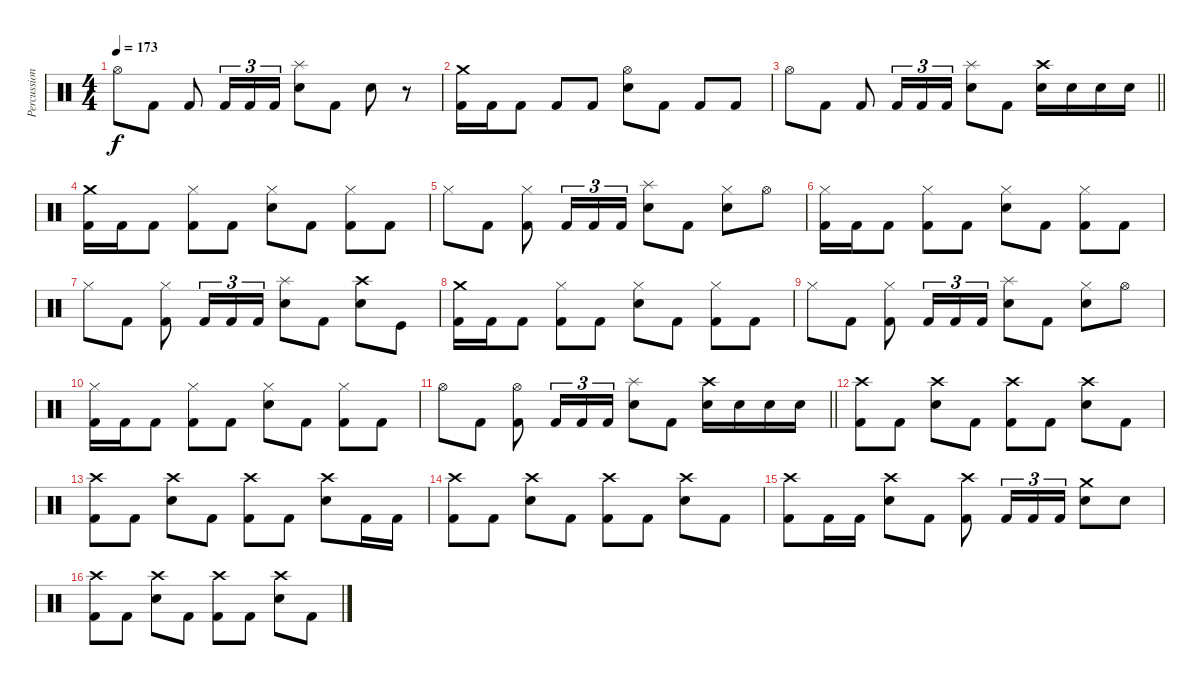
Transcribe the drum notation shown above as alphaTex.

\track ("Percussion" "Percussion") {instrument percussion}
\staff {score}
\articulation defaults
\ts (4 4)
\tempo 173
\clef neutral
\ks c "Hi-Hat (open)".8{dy f} "Kick (hit) 2".8 "Kick (hit) 2".8 "Kick (hit) 2".16{tu (3 2)} "Kick (hit) 2".16{tu (3 2)} "Kick (hit) 2".16{tu (3 2)}
("Splash (hit)" "Electric Snare (hit)").8 "Kick (hit) 2".8 "Electric Snare (hit)".8 r.8 |
("Crash medium (hit)" "Kick (hit) 2").16 "Kick (hit) 2".16 "Kick (hit) 2".8 "Kick (hit) 2".8 "Kick (hit) 2".8 ("Hi-Hat (open)" "Electric Snare (hit)").8 "Kick (hit) 2".8 "Kick (hit) 2".8 "Kick (hit) 2".8 |
\barLineRight lightlight "Hi-Hat (open)".8 "Kick (hit) 2".8 "Kick (hit) 2".8 "Kick (hit) 2".16{tu (3 2)} "Kick (hit) 2".16{tu (3 2)} "Kick (hit) 2".16{tu (3 2)}
("Splash (hit)" "Electric Snare (hit)").8 "Kick (hit) 2".8 ("Crash high (hit)" "Electric Snare (hit)").16 "Electric Snare (hit)".16 "Electric Snare (hit)".16 "Electric Snare (hit)".16 |
("Crash medium (hit)" "Kick (hit) 2").16 "Kick (hit) 2".16 "Kick (hit) 2".8 ("Hi-Hat (closed)" "Kick (hit) 2").8 "Kick (hit) 2".8 ("Hi-Hat (closed)" "Electric Snare (hit)").8 "Kick (hit) 2".8 ("Hi-Hat (closed)" "Kick (hit) 2").8 "Kick (hit) 2".8 |
"Hi-Hat (closed)".8 "Kick (hit) 2".8 ("Hi-Hat (closed)" "Kick (hit) 2").8 "Kick (hit) 2".16{tu (3 2)} "Kick (hit) 2".16{tu (3 2)} "Kick (hit) 2".16{tu (3 2)} ("Splash (hit)" "Electric Snare (hit)").8 "Kick (hit) 2".8 ("Hi-Hat (closed)" "Electric Snare (hit)").8 "Hi-Hat (open)".8 |
("Hi-Hat (closed)" "Kick (hit) 2").16 "Kick (hit) 2".16 "Kick (hit) 2".8 ("Hi-Hat (closed)" "Kick (hit) 2").8 "Kick (hit) 2".8 ("Hi-Hat (closed)" "Electric Snare (hit)").8 "Kick (hit) 2".8 ("Hi-Hat (closed)" "Kick (hit) 2").8 "Kick (hit) 2".8 |
"Hi-Hat (closed)".8 "Kick (hit) 2".8 ("Hi-Hat (closed)" "Kick (hit) 2").8 "Kick (hit) 2".16{tu (3 2)} "Kick (hit) 2".16{tu (3 2)} "Kick (hit) 2".16{tu (3 2)} ("Splash (hit)" "Electric Snare (hit)").8 "Kick (hit) 2".8 ("Crash high (hit)" "Electric Snare (hit)").8 "Kick (hit)".8 |
("Crash medium (hit)" "Kick (hit) 2").16 "Kick (hit) 2".16 "Kick (hit) 2".8 ("Hi-Hat (closed)" "Kick (hit) 2").8 "Kick (hit) 2".8 ("Hi-Hat (closed)" "Electric Snare (hit)").8 "Kick (hit) 2".8 ("Hi-Hat (closed)" "Kick (hit) 2").8 "Kick (hit) 2".8 |
"Hi-Hat (closed)".8 "Kick (hit) 2".8 ("Hi-Hat (closed)" "Kick (hit) 2").8 "Kick (hit) 2".16{tu (3 2)} "Kick (hit) 2".16{tu (3 2)} "Kick (hit) 2".16{tu (3 2)} ("Splash (hit)" "Electric Snare (hit)").8 "Kick (hit) 2".8 ("Hi-Hat (closed)" "Electric Snare (hit)").8 "Hi-Hat (open)".8 |
("Hi-Hat (closed)" "Kick (hit) 2").16 "Kick (hit) 2".16 "Kick (hit) 2".8 ("Hi-Hat (closed)" "Kick (hit) 2").8 "Kick (hit) 2".8 ("Hi-Hat (closed)" "Electric Snare (hit)").8 "Kick (hit) 2".8 ("Hi-Hat (closed)" "Kick (hit) 2").8 "Kick (hit) 2".8 |
\barLineRight lightlight "Hi-Hat (open)".8 "Kick (hit) 2".8
("Hi-Hat (open)" "Kick (hit) 2").8 "Kick (hit) 2".16{tu (3 2)} "Kick (hit) 2".16{tu (3 2)} "Kick (hit) 2".16{tu (3 2)} ("Splash (hit)" "Electric Snare (hit)").8 "Kick (hit) 2".8 ("Crash high (hit)" "Electric Snare (hit)").16 "Electric Snare (hit)".16 "Electric Snare (hit)".16 "Electric Snare (hit)".16 |
("Crash high (hit)" "Kick (hit) 2").8 "Kick (hit) 2".8 ("Crash high (hit)" "Electric Snare (hit)").8 "Kick (hit) 2".8 ("Crash high (hit)" "Kick (hit) 2").8 "Kick (hit) 2".8 ("Crash high (hit)" "Electric Snare (hit)").8 "Kick (hit) 2".8 |
("Crash high (hit)" "Kick (hit) 2").8 "Kick (hit) 2".8 ("Crash high (hit)" "Electric Snare (hit)").8 "Kick (hit) 2".8 ("Crash high (hit)" "Kick (hit) 2").8 "Kick (hit) 2".8 ("Crash high (hit)" "Electric Snare (hit)").8 "Kick (hit) 2".16 "Kick (hit) 2".16 |
("Crash high (hit)" "Kick (hit) 2").8 "Kick (hit) 2".8 ("Crash high (hit)" "Electric Snare (hit)").8 "Kick (hit) 2".8 ("Crash high (hit)" "Kick (hit) 2").8 "Kick (hit) 2".8 ("Crash high (hit)" "Electric Snare (hit)").8 "Kick (hit) 2".8 |
("Crash high (hit)" "Kick (hit) 2").8 "Kick (hit) 2".16 "Kick (hit) 2".16 ("Crash high (hit)" "Electric Snare (hit)").8 "Kick (hit) 2".8 ("Crash high (hit)" "Kick (hit) 2").8 "Kick (hit) 2".16{tu (3 2)} "Kick (hit) 2".16{tu (3 2)} "Kick (hit) 2".16{tu (3 2)} ("Crash medium (hit)" "Electric Snare (hit)").8 "Electric Snare (hit)".8 |
("Crash high (hit)" "Kick (hit) 2").8 "Kick (hit) 2".8 ("Crash high (hit)" "Electric Snare (hit)").8 "Kick (hit) 2".8 ("Crash high (hit)" "Kick (hit) 2").8 "Kick (hit) 2".8 ("Crash high (hit)" "Electric Snare (hit)").8 "Kick (hit) 2".8
